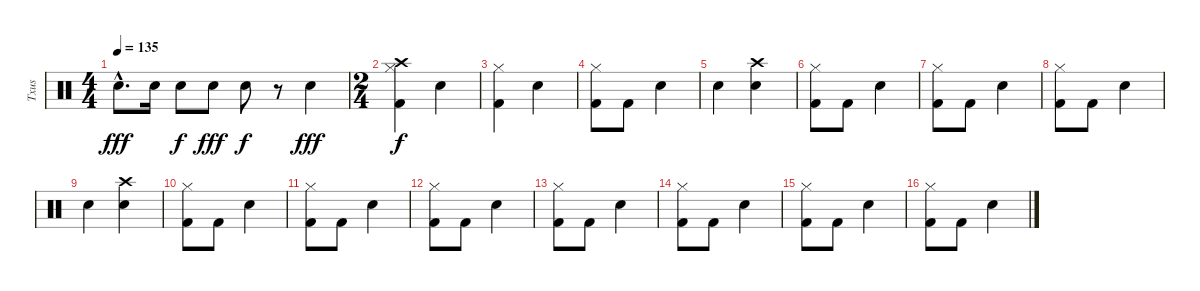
\track ("Txus" "Txus") {instrument percussion}
\staff {score}
\articulation defaults
\ts (4 4)
\tempo 135
\clef neutral
\ks c "Electric Snare (hit)"{hac}.8{d dy fff} "Electric Snare (hit)".16 "Electric Snare (hit)".8{dy f} "Electric Snare (hit)".8{dy fff} "Electric Snare (hit)".8{dy f}
r.8 "Electric Snare (hit)".4{dy fff} |
\ts (2 4)
("Crash high (hit)" "Hi-Hat (closed)" "Kick (hit) 2").4{dy f} "Snare (hit) 2".4 |
("Hi-Hat (closed)" "Kick (hit) 2").4 "Snare (hit) 2".4 |
("Hi-Hat (closed)" "Kick (hit) 2").8 "Kick (hit) 2".8 "Snare (hit) 2".4 |
"Snare (hit) 2".4 ("Crash high (hit)" "Snare (hit) 2").4 |
("Hi-Hat (closed)" "Kick (hit) 2").8 "Kick (hit) 2".8 "Snare (hit) 2".4 |
("Hi-Hat (closed)" "Kick (hit) 2").8 "Kick (hit) 2".8 "Snare (hit) 2".4 |
("Hi-Hat (closed)" "Kick (hit) 2").8 "Kick (hit) 2".8 "Snare (hit) 2".4 |
"Snare (hit) 2".4 ("Crash high (hit)" "Snare (hit) 2").4 |
("Hi-Hat (closed)" "Kick (hit) 2").8 "Kick (hit) 2".8 "Snare (hit) 2".4 |
("Hi-Hat (closed)" "Kick (hit) 2").8 "Kick (hit) 2".8 "Snare (hit) 2".4 |
("Hi-Hat (closed)" "Kick (hit) 2").8 "Kick (hit) 2".8 "Snare (hit) 2".4 |
("Hi-Hat (closed)" "Kick (hit) 2").8 "Kick (hit) 2".8 "Snare (hit) 2".4 |
("Hi-Hat (closed)" "Kick (hit) 2").8 "Kick (hit) 2".8 "Snare (hit) 2".4 |
("Hi-Hat (closed)" "Kick (hit) 2").8 "Kick (hit) 2".8 "Snare (hit) 2".4 |
("Hi-Hat (closed)" "Kick (hit) 2").8 "Kick (hit) 2".8 "Snare (hit) 2".4
